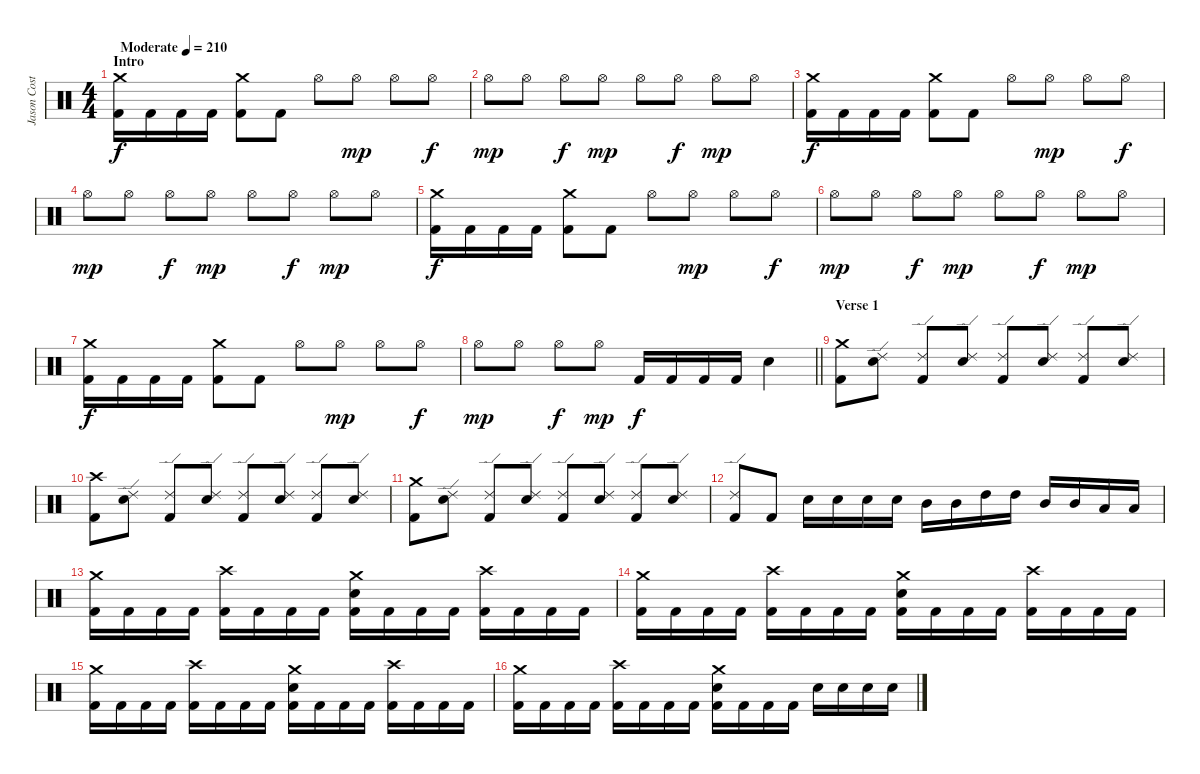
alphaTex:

\track ("Jason Costa" "Jason Cost") {instrument percussion}
\staff {score}
\articulation defaults
\ts (4 4)
\section ("" "Intro")
\tempo (210 "Moderate")
\clef neutral
\ks c
("Crash medium (hit)" "Kick (hit) 2").16{dy f} "Kick (hit) 2".16 "Kick (hit) 2".16 "Kick (hit) 2".16 ("Crash medium (hit)" "Kick (hit) 2").8 "Kick (hit) 2".8 "Hi-Hat (open)".8 "Hi-Hat (open)".8{dy mp} "Hi-Hat (open)".8 "Hi-Hat (open)".8{dy f} |
"Hi-Hat (open)".8{dy mp} "Hi-Hat (open)".8 "Hi-Hat (open)".8{dy f} "Hi-Hat (open)".8{dy mp} "Hi-Hat (open)".8 "Hi-Hat (open)".8{dy f} "Hi-Hat (open)".8{dy mp} "Hi-Hat (open)".8 |
("Crash medium (hit)" "Kick (hit) 2").16{dy f} "Kick (hit) 2".16 "Kick (hit) 2".16 "Kick (hit) 2".16 ("Crash medium (hit)" "Kick (hit) 2").8 "Kick (hit) 2".8 "Hi-Hat (open)".8 "Hi-Hat (open)".8{dy mp} "Hi-Hat (open)".8 "Hi-Hat (open)".8{dy f} |
"Hi-Hat (open)".8{dy mp} "Hi-Hat (open)".8 "Hi-Hat (open)".8{dy f} "Hi-Hat (open)".8{dy mp} "Hi-Hat (open)".8 "Hi-Hat (open)".8{dy f} "Hi-Hat (open)".8{dy mp} "Hi-Hat (open)".8 |
("Crash medium (hit)" "Kick (hit) 2").16{dy f} "Kick (hit) 2".16 "Kick (hit) 2".16 "Kick (hit) 2".16 ("Crash medium (hit)" "Kick (hit) 2").8 "Kick (hit) 2".8 "Hi-Hat (open)".8 "Hi-Hat (open)".8{dy mp} "Hi-Hat (open)".8 "Hi-Hat (open)".8{dy f} |
"Hi-Hat (open)".8{dy mp} "Hi-Hat (open)".8 "Hi-Hat (open)".8{dy f} "Hi-Hat (open)".8{dy mp} "Hi-Hat (open)".8 "Hi-Hat (open)".8{dy f} "Hi-Hat (open)".8{dy mp} "Hi-Hat (open)".8 |
("Crash medium (hit)" "Kick (hit) 2").16{dy f} "Kick (hit) 2".16 "Kick (hit) 2".16 "Kick (hit) 2".16 ("Crash medium (hit)" "Kick (hit) 2").8 "Kick (hit) 2".8 "Hi-Hat (open)".8 "Hi-Hat (open)".8{dy mp} "Hi-Hat (open)".8 "Hi-Hat (open)".8{dy f} |
\barLineRight lightlight "Hi-Hat (open)".8{dy mp} "Hi-Hat (open)".8 "Hi-Hat (open)".8{dy f} "Hi-Hat (open)".8{dy mp} "Kick (hit) 2".16{dy f} "Kick (hit) 2".16 "Kick (hit) 2".16 "Kick (hit) 2".16 "Electric Snare (hit)".4
|
\section ("" "Verse 1")
("Crash medium (hit)" "Kick (hit) 2").8 ("Ride (edge) 2" "Electric Snare (hit)").8 ("Ride (edge) 2" "Kick (hit) 2").8 ("Ride (edge) 2" "Electric Snare (hit)").8 ("Ride (edge) 2" "Kick (hit) 2").8 ("Ride (edge) 2" "Electric Snare (hit)").8 ("Ride (edge) 2" "Kick (hit) 2").8 ("Ride (edge) 2" "Electric Snare (hit)").8 |
("Crash high (hit)" "Kick (hit) 2").8 ("Ride (edge) 2" "Electric Snare (hit)").8 ("Ride (edge) 2" "Kick (hit) 2").8 ("Ride (edge) 2" "Electric Snare (hit)").8 ("Ride (edge) 2" "Kick (hit) 2").8 ("Ride (edge) 2" "Electric Snare (hit)").8 ("Ride (edge) 2" "Kick (hit) 2").8 ("Ride (edge) 2" "Electric Snare (hit)").8 |
("Crash medium (hit)" "Kick (hit) 2").8 ("Ride (edge) 2" "Electric Snare (hit)").8 ("Ride (edge) 2" "Kick (hit) 2").8 ("Ride (edge) 2" "Electric Snare (hit)").8 ("Ride (edge) 2" "Kick (hit) 2").8 ("Ride (edge) 2" "Electric Snare (hit)").8 ("Ride (edge) 2" "Kick (hit) 2").8 ("Ride (edge) 2" "Electric Snare (hit)").8 |
("Ride (edge) 2" "Kick (hit) 2").8 "Kick (hit) 2".8 "Electric Snare (hit)".16 "Electric Snare (hit)".16 "Electric Snare (hit)".16 "Electric Snare (hit)".16 "Mid Tom (hit)".16 "Mid Tom (hit)".16 "High Tom (hit)".16 "High Tom (hit)".16 "Mid Tom (hit)".16 "Mid Tom (hit)".16 "Low Tom (hit)".16 "Low Tom (hit)".16 |
("Crash medium (hit)" "Kick (hit) 2").16 "Kick (hit) 2".16 "Kick (hit) 2".16 "Kick (hit) 2".16 ("Crash high (hit)" "Kick (hit) 2").16 "Kick (hit) 2".16 "Kick (hit) 2".16 "Kick (hit) 2".16 ("Crash medium (hit)" "Electric Snare (hit)" "Kick (hit) 2").16 "Kick (hit) 2".16 "Kick (hit) 2".16 "Kick (hit) 2".16 ("Crash high (hit)" "Kick (hit) 2").16 "Kick (hit) 2".16 "Kick (hit) 2".16 "Kick (hit) 2".16 |
("Crash medium (hit)" "Kick (hit) 2").16 "Kick (hit) 2".16 "Kick (hit) 2".16 "Kick (hit) 2".16 ("Crash high (hit)" "Kick (hit) 2").16 "Kick (hit) 2".16 "Kick (hit) 2".16 "Kick (hit) 2".16 ("Crash medium (hit)" "Electric Snare (hit)" "Kick (hit) 2").16 "Kick (hit) 2".16 "Kick (hit) 2".16 "Kick (hit) 2".16 ("Crash high (hit)" "Kick (hit) 2").16 "Kick (hit) 2".16 "Kick (hit) 2".16 "Kick (hit) 2".16 |
("Crash medium (hit)" "Kick (hit) 2").16 "Kick (hit) 2".16 "Kick (hit) 2".16 "Kick (hit) 2".16 ("Crash high (hit)" "Kick (hit) 2").16 "Kick (hit) 2".16 "Kick (hit) 2".16 "Kick (hit) 2".16 ("Crash medium (hit)" "Electric Snare (hit)" "Kick (hit) 2").16 "Kick (hit) 2".16 "Kick (hit) 2".16 "Kick (hit) 2".16 ("Crash high (hit)" "Kick (hit) 2").16 "Kick (hit) 2".16 "Kick (hit) 2".16 "Kick (hit) 2".16 |
("Crash medium (hit)" "Kick (hit) 2").16 "Kick (hit) 2".16 "Kick (hit) 2".16 "Kick (hit) 2".16 ("Crash high (hit)" "Kick (hit) 2").16 "Kick (hit) 2".16 "Kick (hit) 2".16 "Kick (hit) 2".16 ("Crash medium (hit)" "Electric Snare (hit)" "Kick (hit) 2").16 "Kick (hit) 2".16 "Kick (hit) 2".16 "Kick (hit) 2".16 "Electric Snare (hit)".16 "Electric Snare (hit)".16 "Electric Snare (hit)".16 "Electric Snare (hit)".16
